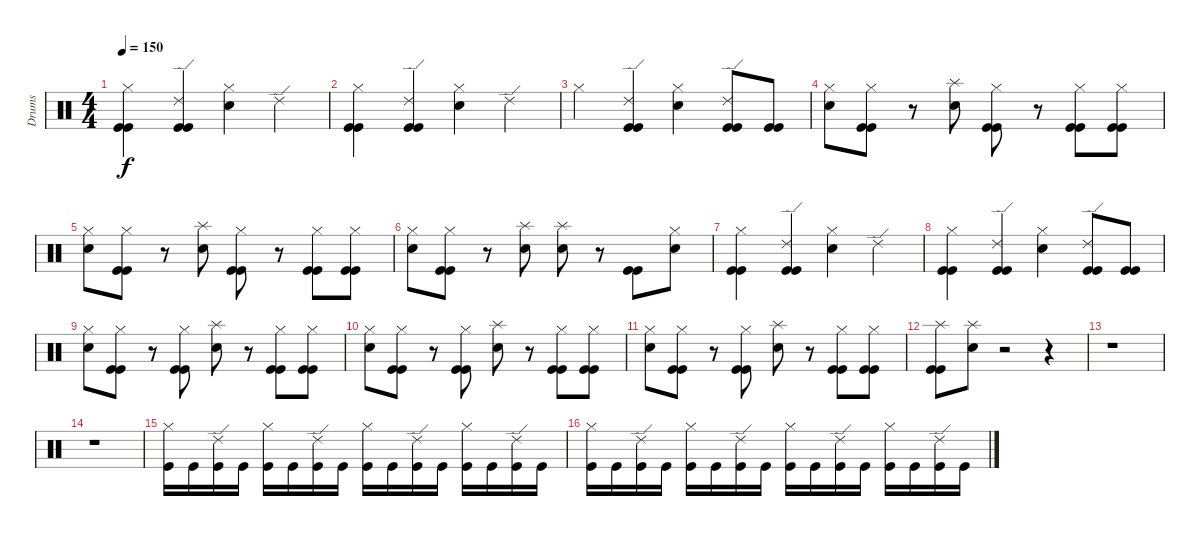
\track ("Drums" "Drums") {instrument percussion}
\staff {score}
\articulation defaults
\ts (4 4)
\tempo 150
\clef neutral
\ks c
("Hi-Hat (closed)" "Kick (hit)" "Kick (hit)").4{dy f} ("Ride (edge) 2" "Kick (hit)" "Kick (hit)").4 ("Hi-Hat (closed)" "Snare (hit) 2").4 "Ride (edge) 2".4 |
("Hi-Hat (closed)" "Kick (hit)" "Kick (hit)").4 ("Ride (edge) 2" "Kick (hit)" "Kick (hit)").4 ("Hi-Hat (closed)" "Snare (hit) 2").4 "Ride (edge) 2".4 |
"Hi-Hat (closed)".4 ("Ride (edge) 2" "Kick (hit)" "Kick (hit)").4 ("Hi-Hat (closed)" "Snare (hit) 2").4 ("Ride (edge) 2" "Kick (hit)" "Kick (hit)").8 ("Kick (hit)" "Kick (hit)").8 |
("Hi-Hat (closed)" "Snare (hit) 2").8 ("Hi-Hat (closed)" "Kick (hit)" "Kick (hit)").8 r.8 ("Splash (hit)" "Snare (hit) 2").8 ("Hi-Hat (closed)" "Kick (hit)" "Kick (hit)").8 r.8 ("Hi-Hat (closed)" "Kick (hit)" "Kick (hit)").8 ("Hi-Hat (closed)" "Kick (hit)" "Kick (hit)").8 |
("Hi-Hat (closed)" "Snare (hit) 2").8 ("Hi-Hat (closed)" "Kick (hit)" "Kick (hit)").8 r.8 ("Splash (hit)" "Snare (hit) 2").8 ("Hi-Hat (closed)" "Kick (hit)" "Kick (hit)").8 r.8 ("Hi-Hat (closed)" "Kick (hit)" "Kick (hit)").8 ("Hi-Hat (closed)" "Kick (hit)" "Kick (hit)").8 |
("Hi-Hat (closed)" "Snare (hit) 2").8 ("Hi-Hat (closed)" "Kick (hit)" "Kick (hit)").8 r.8 ("Splash (hit)" "Snare (hit) 2").8 ("Splash (hit)" "Snare (hit) 2").8 r.8 ("Kick (hit)" "Kick (hit)").8 ("Hi-Hat (closed)" "Snare (hit) 2").8 |
("Hi-Hat (closed)" "Kick (hit)" "Kick (hit)").4 ("Ride (edge) 2" "Kick (hit)" "Kick (hit)").4 ("Hi-Hat (closed)" "Snare (hit) 2").4 "Ride (edge) 2".4 |
("Hi-Hat (closed)" "Kick (hit)" "Kick (hit)").4 ("Ride (edge) 2" "Kick (hit)" "Kick (hit)").4 ("Hi-Hat (closed)" "Snare (hit) 2").4 ("Ride (edge) 2" "Kick (hit)" "Kick (hit)").8 ("Kick (hit)" "Kick (hit)").8 |
("Hi-Hat (closed)" "Snare (hit) 2").8 ("Hi-Hat (closed)" "Kick (hit)" "Kick (hit)").8 r.8 ("Hi-Hat (closed)" "Kick (hit)" "Kick (hit)").8 ("Splash (hit)" "Snare (hit) 2").8 r.8 ("Hi-Hat (closed)" "Kick (hit)" "Kick (hit)").8 ("Hi-Hat (closed)" "Kick (hit)" "Kick (hit)").8 |
("Hi-Hat (closed)" "Snare (hit) 2").8 ("Hi-Hat (closed)" "Kick (hit)" "Kick (hit)").8 r.8 ("Hi-Hat (closed)" "Kick (hit)" "Kick (hit)").8 ("Splash (hit)" "Snare (hit) 2").8 r.8 ("Hi-Hat (closed)" "Kick (hit)" "Kick (hit)").8 ("Hi-Hat (closed)" "Kick (hit)" "Kick (hit)").8 |
("Hi-Hat (closed)" "Snare (hit) 2").8 ("Hi-Hat (closed)" "Kick (hit)" "Kick (hit)").8 r.8 ("Hi-Hat (closed)" "Kick (hit)" "Kick (hit)").8 ("Splash (hit)" "Snare (hit) 2").8 r.8 ("Hi-Hat (closed)" "Kick (hit)" "Kick (hit)").8 ("Hi-Hat (closed)" "Kick (hit)" "Kick (hit)").8 |
("Splash (hit)" "Kick (hit)" "Kick (hit)").8 ("Splash (hit)" "Snare (hit) 2").8 r.2 r.4 |
r.1 |
r.1 |
("Hi-Hat (closed)" "Kick (hit)").16 "Kick (hit)".16 ("Ride (edge) 2" "Kick (hit)").16 "Kick (hit)".16 ("Hi-Hat (closed)" "Kick (hit)").16 "Kick (hit)".16 ("Ride (edge) 2" "Kick (hit)").16 "Kick (hit)".16 ("Hi-Hat (closed)" "Kick (hit)").16 "Kick (hit)".16 ("Ride (edge) 2" "Kick (hit)").16 "Kick (hit)".16 ("Hi-Hat (closed)" "Kick (hit)").16 "Kick (hit)".16 ("Ride (edge) 2" "Kick (hit)").16 "Kick (hit)".16 |
("Hi-Hat (closed)" "Kick (hit)").16 "Kick (hit)".16 ("Ride (edge) 2" "Kick (hit)").16 "Kick (hit)".16 ("Hi-Hat (closed)" "Kick (hit)").16 "Kick (hit)".16 ("Ride (edge) 2" "Kick (hit)").16 "Kick (hit)".16 ("Hi-Hat (closed)" "Kick (hit)").16 "Kick (hit)".16 ("Ride (edge) 2" "Kick (hit)").16 "Kick (hit)".16 ("Hi-Hat (closed)" "Kick (hit)").16 "Kick (hit)".16 ("Ride (edge) 2" "Kick (hit)").16 "Kick (hit)".16
